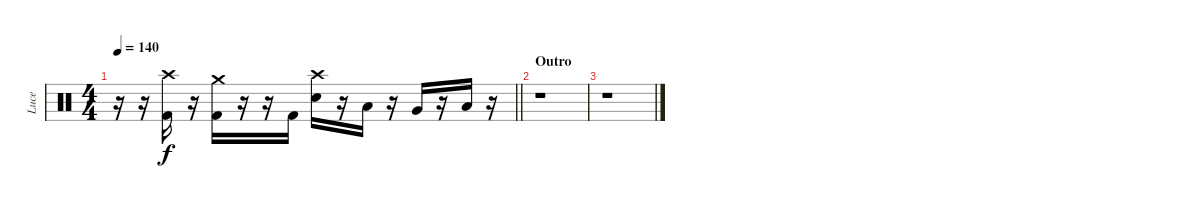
\track ("Luce" "Luce") {instrument percussion}
\staff {score}
\articulation defaults
\ts (4 4)
\tempo 140
\clef neutral
\barLineRight lightlight
\ks c
r.16{dy f} r.16 ("Crash high (hit)" "Kick (hit) 2").16 r.16 ("Crash medium (hit)" "Kick (hit) 2").16 r.16 r.16 "Kick (hit) 2".16 ("Crash high (hit)" "Electric Snare (hit)").16 r.16 "Low Tom (hit)".16 r.16 "Very Low Tom (hit)".16 r.16 "Low Floor Tom (hit)".16 r.16 |
\section ("" "Outro")
r.1 |
r.1
